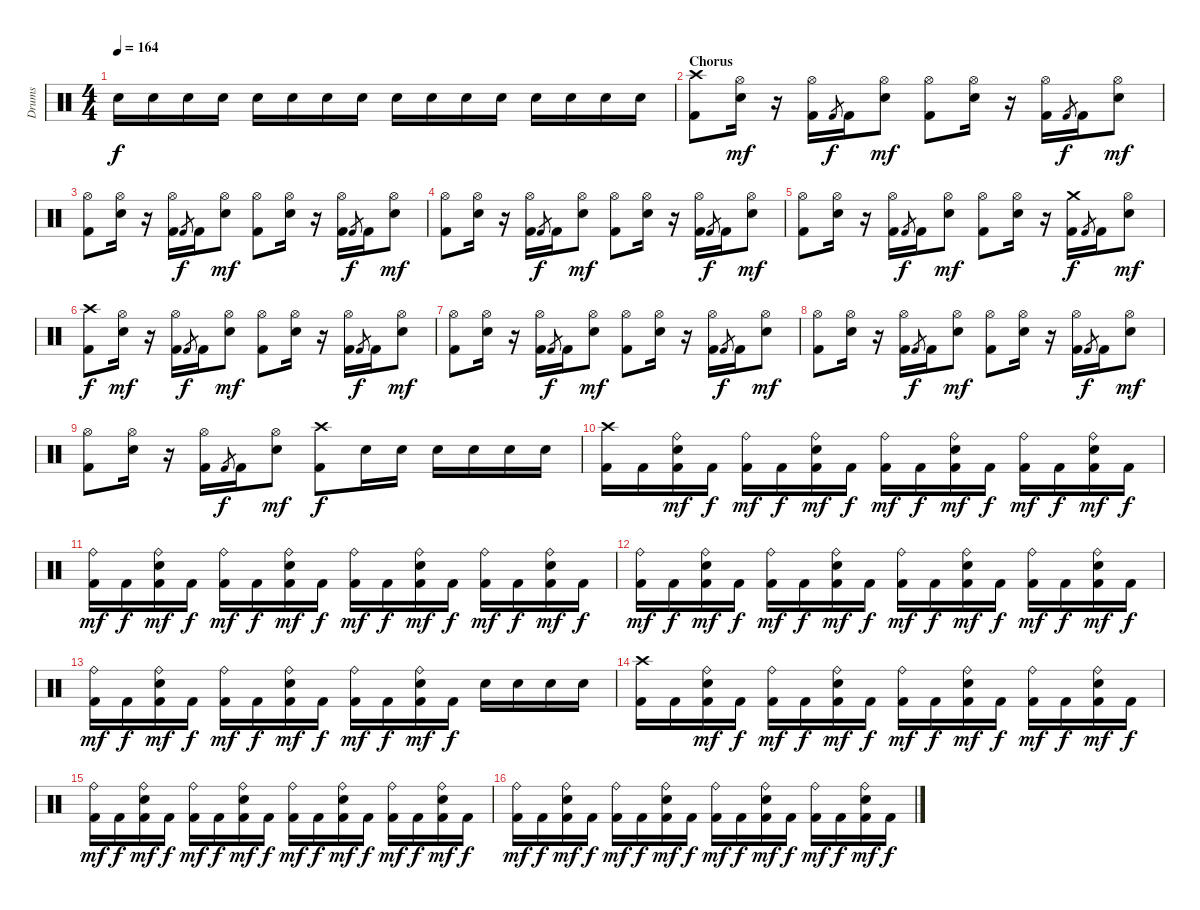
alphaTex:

\track ("Drums" "Drums") {instrument percussion}
\staff {score}
\articulation defaults
\ts (4 4)
\tempo 164
\clef neutral
\ks c "Electric Snare (hit)".16{dy f} "Electric Snare (hit)".16 "Electric Snare (hit)".16 "Electric Snare (hit)".16 "Electric Snare (hit)".16 "Electric Snare (hit)".16 "Electric Snare (hit)".16 "Electric Snare (hit)".16 "Electric Snare (hit)".16 "Electric Snare (hit)".16 "Electric Snare (hit)".16 "Electric Snare (hit)".16 "Electric Snare (hit)".16 "Electric Snare (hit)".16 "Electric Snare (hit)".16 "Electric Snare (hit)".16
|
\section ("" "Chorus")
("Crash high (hit)" "Kick (hit) 2").8 ("Hi-Hat (open)" "Electric Snare (hit)").16{dy mf} r.16 ("Hi-Hat (open)" "Kick (hit) 2").16 "Kick (hit) 2".8{gr dy f} "Kick (hit) 2".16 ("Hi-Hat (open)" "Electric Snare (hit)").8{dy mf} ("Hi-Hat (open)" "Kick (hit) 2").8 ("Hi-Hat (open)" "Electric Snare (hit)").16 r.16 ("Hi-Hat (open)" "Kick (hit) 2").16 "Kick (hit) 2".8{gr dy f} "Kick (hit) 2".16 ("Hi-Hat (open)" "Electric Snare (hit)").8{dy mf} |
("Hi-Hat (open)" "Kick (hit) 2").8 ("Hi-Hat (open)" "Electric Snare (hit)").16 r.16 ("Hi-Hat (open)" "Kick (hit) 2").16 "Kick (hit) 2".8{gr dy f} "Kick (hit) 2".16 ("Hi-Hat (open)" "Electric Snare (hit)").8{dy mf} ("Hi-Hat (open)" "Kick (hit) 2").8 ("Hi-Hat (open)" "Electric Snare (hit)").16 r.16 ("Hi-Hat (open)" "Kick (hit) 2").16 "Kick (hit) 2".8{gr dy f} "Kick (hit) 2".16 ("Hi-Hat (open)" "Electric Snare (hit)").8{dy mf} |
("Hi-Hat (open)" "Kick (hit) 2").8 ("Hi-Hat (open)" "Electric Snare (hit)").16 r.16 ("Hi-Hat (open)" "Kick (hit) 2").16 "Kick (hit) 2".8{gr dy f} "Kick (hit) 2".16 ("Hi-Hat (open)" "Electric Snare (hit)").8{dy mf} ("Hi-Hat (open)" "Kick (hit) 2").8 ("Hi-Hat (open)" "Electric Snare (hit)").16 r.16 ("Hi-Hat (open)" "Kick (hit) 2").16 "Kick (hit) 2".8{gr dy f} "Kick (hit) 2".16 ("Hi-Hat (open)" "Electric Snare (hit)").8{dy mf} |
("Hi-Hat (open)" "Kick (hit) 2").8 ("Hi-Hat (open)" "Electric Snare (hit)").16 r.16 ("Hi-Hat (open)" "Kick (hit) 2").16 "Kick (hit) 2".8{gr dy f} "Kick (hit) 2".16 ("Hi-Hat (open)" "Electric Snare (hit)").8{dy mf} ("Hi-Hat (open)" "Kick (hit) 2").8 ("Hi-Hat (open)" "Electric Snare (hit)").16 r.16 ("Crash medium (hit)" "Kick (hit) 2").16{dy f} "Kick (hit) 2".8{gr} "Kick (hit) 2".16 ("Hi-Hat (open)" "Electric Snare (hit)").8{dy mf} |
("Crash high (hit)" "Kick (hit) 2").8{dy f} ("Hi-Hat (open)" "Electric Snare (hit)").16{dy mf} r.16 ("Hi-Hat (open)" "Kick (hit) 2").16 "Kick (hit) 2".8{gr dy f} "Kick (hit) 2".16 ("Hi-Hat (open)" "Electric Snare (hit)").8{dy mf} ("Hi-Hat (open)" "Kick (hit) 2").8 ("Hi-Hat (open)" "Electric Snare (hit)").16 r.16 ("Hi-Hat (open)" "Kick (hit) 2").16 "Kick (hit) 2".8{gr dy f} "Kick (hit) 2".16 ("Hi-Hat (open)" "Electric Snare (hit)").8{dy mf} |
("Hi-Hat (open)" "Kick (hit) 2").8 ("Hi-Hat (open)" "Electric Snare (hit)").16 r.16 ("Hi-Hat (open)" "Kick (hit) 2").16 "Kick (hit) 2".8{gr dy f} "Kick (hit) 2".16 ("Hi-Hat (open)" "Electric Snare (hit)").8{dy mf} ("Hi-Hat (open)" "Kick (hit) 2").8 ("Hi-Hat (open)" "Electric Snare (hit)").16 r.16 ("Hi-Hat (open)" "Kick (hit) 2").16 "Kick (hit) 2".8{gr dy f} "Kick (hit) 2".16 ("Hi-Hat (open)" "Electric Snare (hit)").8{dy mf} |
("Hi-Hat (open)" "Kick (hit) 2").8 ("Hi-Hat (open)" "Electric Snare (hit)").16 r.16 ("Hi-Hat (open)" "Kick (hit) 2").16 "Kick (hit) 2".8{gr dy f} "Kick (hit) 2".16 ("Hi-Hat (open)" "Electric Snare (hit)").8{dy mf} ("Hi-Hat (open)" "Kick (hit) 2").8 ("Hi-Hat (open)" "Electric Snare (hit)").16 r.16 ("Hi-Hat (open)" "Kick (hit) 2").16 "Kick (hit) 2".8{gr dy f} "Kick (hit) 2".16 ("Hi-Hat (open)" "Electric Snare (hit)").8{dy mf} |
("Hi-Hat (open)" "Kick (hit) 2").8 ("Hi-Hat (open)" "Electric Snare (hit)").16 r.16 ("Hi-Hat (open)" "Kick (hit) 2").16 "Kick (hit) 2".8{gr dy f} "Kick (hit) 2".16 ("Hi-Hat (open)" "Electric Snare (hit)").8{dy mf} ("Crash high (hit)" "Kick (hit) 2").8{dy f} "Electric Snare (hit)".16 "Electric Snare (hit)".16 "Electric Snare (hit)".16 "Electric Snare (hit)".16 "Electric Snare (hit)".16 "Electric Snare (hit)".16 |
("Crash high (hit)" "Kick (hit) 2").16 "Kick (hit) 2".16 ("Ride (bell)" "Electric Snare (hit)" "Kick (hit) 2").16{dy mf} "Kick (hit) 2".16{dy f} ("Ride (bell)" "Kick (hit) 2").16{dy mf} "Kick (hit) 2".16{dy f} ("Ride (bell)" "Electric Snare (hit)" "Kick (hit) 2").16{dy mf} "Kick (hit) 2".16{dy f} ("Ride (bell)" "Kick (hit) 2").16{dy mf} "Kick (hit) 2".16{dy f} ("Ride (bell)" "Electric Snare (hit)" "Kick (hit) 2").16{dy mf} "Kick (hit) 2".16{dy f} ("Ride (bell)" "Kick (hit) 2").16{dy mf} "Kick (hit) 2".16{dy f} ("Ride (bell)" "Electric Snare (hit)" "Kick (hit) 2").16{dy mf} "Kick (hit) 2".16{dy f} |
("Ride (bell)" "Kick (hit) 2").16{dy mf} "Kick (hit) 2".16{dy f} ("Ride (bell)" "Electric Snare (hit)" "Kick (hit) 2").16{dy mf} "Kick (hit) 2".16{dy f} ("Ride (bell)" "Kick (hit) 2").16{dy mf} "Kick (hit) 2".16{dy f} ("Ride (bell)" "Electric Snare (hit)" "Kick (hit) 2").16{dy mf} "Kick (hit) 2".16{dy f} ("Ride (bell)" "Kick (hit) 2").16{dy mf} "Kick (hit) 2".16{dy f} ("Ride (bell)" "Electric Snare (hit)" "Kick (hit) 2").16{dy mf} "Kick (hit) 2".16{dy f} ("Ride (bell)" "Kick (hit) 2").16{dy mf} "Kick (hit) 2".16{dy f} ("Ride (bell)" "Electric Snare (hit)" "Kick (hit) 2").16{dy mf} "Kick (hit) 2".16{dy f} |
("Ride (bell)" "Kick (hit) 2").16{dy mf} "Kick (hit) 2".16{dy f} ("Ride (bell)" "Electric Snare (hit)" "Kick (hit) 2").16{dy mf} "Kick (hit) 2".16{dy f} ("Ride (bell)" "Kick (hit) 2").16{dy mf} "Kick (hit) 2".16{dy f} ("Ride (bell)" "Electric Snare (hit)" "Kick (hit) 2").16{dy mf} "Kick (hit) 2".16{dy f} ("Ride (bell)" "Kick (hit) 2").16{dy mf} "Kick (hit) 2".16{dy f} ("Ride (bell)" "Electric Snare (hit)" "Kick (hit) 2").16{dy mf} "Kick (hit) 2".16{dy f} ("Ride (bell)" "Kick (hit) 2").16{dy mf} "Kick (hit) 2".16{dy f} ("Ride (bell)" "Electric Snare (hit)" "Kick (hit) 2").16{dy mf} "Kick (hit) 2".16{dy f} |
("Ride (bell)" "Kick (hit) 2").16{dy mf} "Kick (hit) 2".16{dy f} ("Ride (bell)" "Electric Snare (hit)" "Kick (hit) 2").16{dy mf} "Kick (hit) 2".16{dy f} ("Ride (bell)" "Kick (hit) 2").16{dy mf} "Kick (hit) 2".16{dy f} ("Ride (bell)" "Electric Snare (hit)" "Kick (hit) 2").16{dy mf} "Kick (hit) 2".16{dy f} ("Ride (bell)" "Kick (hit) 2").16{dy mf} "Kick (hit) 2".16{dy f} ("Ride (bell)" "Electric Snare (hit)" "Kick (hit) 2").16{dy mf} "Kick (hit) 2".16{dy f} "Electric Snare (hit)".16 "Electric Snare (hit)".16 "Electric Snare (hit)".16 "Electric Snare (hit)".16 |
("Crash high (hit)" "Kick (hit) 2").16 "Kick (hit) 2".16 ("Ride (bell)" "Electric Snare (hit)" "Kick (hit) 2").16{dy mf} "Kick (hit) 2".16{dy f} ("Ride (bell)" "Kick (hit) 2").16{dy mf} "Kick (hit) 2".16{dy f} ("Ride (bell)" "Electric Snare (hit)" "Kick (hit) 2").16{dy mf} "Kick (hit) 2".16{dy f} ("Ride (bell)" "Kick (hit) 2").16{dy mf} "Kick (hit) 2".16{dy f} ("Ride (bell)" "Electric Snare (hit)" "Kick (hit) 2").16{dy mf} "Kick (hit) 2".16{dy f} ("Ride (bell)" "Kick (hit) 2").16{dy mf} "Kick (hit) 2".16{dy f} ("Ride (bell)" "Electric Snare (hit)" "Kick (hit) 2").16{dy mf} "Kick (hit) 2".16{dy f} |
("Ride (bell)" "Kick (hit) 2").16{dy mf} "Kick (hit) 2".16{dy f} ("Ride (bell)" "Electric Snare (hit)" "Kick (hit) 2").16{dy mf} "Kick (hit) 2".16{dy f} ("Ride (bell)" "Kick (hit) 2").16{dy mf} "Kick (hit) 2".16{dy f} ("Ride (bell)" "Electric Snare (hit)" "Kick (hit) 2").16{dy mf} "Kick (hit) 2".16{dy f} ("Ride (bell)" "Kick (hit) 2").16{dy mf} "Kick (hit) 2".16{dy f} ("Ride (bell)" "Electric Snare (hit)" "Kick (hit) 2").16{dy mf} "Kick (hit) 2".16{dy f} ("Ride (bell)" "Kick (hit) 2").16{dy mf} "Kick (hit) 2".16{dy f} ("Ride (bell)" "Electric Snare (hit)" "Kick (hit) 2").16{dy mf} "Kick (hit) 2".16{dy f} |
("Ride (bell)" "Kick (hit) 2").16{dy mf} "Kick (hit) 2".16{dy f} ("Ride (bell)" "Electric Snare (hit)" "Kick (hit) 2").16{dy mf} "Kick (hit) 2".16{dy f} ("Ride (bell)" "Kick (hit) 2").16{dy mf} "Kick (hit) 2".16{dy f} ("Ride (bell)" "Electric Snare (hit)" "Kick (hit) 2").16{dy mf} "Kick (hit) 2".16{dy f} ("Ride (bell)" "Kick (hit) 2").16{dy mf} "Kick (hit) 2".16{dy f} ("Ride (bell)" "Electric Snare (hit)" "Kick (hit) 2").16{dy mf} "Kick (hit) 2".16{dy f} ("Ride (bell)" "Kick (hit) 2").16{dy mf} "Kick (hit) 2".16{dy f} ("Ride (bell)" "Electric Snare (hit)" "Kick (hit) 2").16{dy mf} "Kick (hit) 2".16{dy f}
